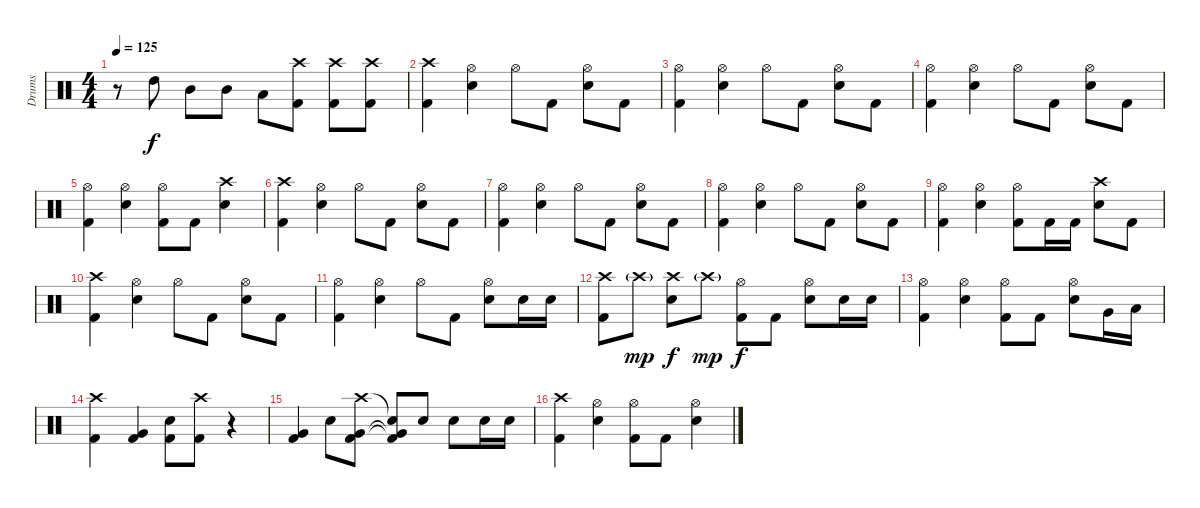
\track ("Drums" "Drums") {instrument percussion}
\staff {score}
\articulation defaults
\ts (4 4)
\tempo 125
\clef neutral
\ks c
r.8{dy f} "High Tom (hit)".8 "Mid Tom (hit)".8 "Mid Tom (hit)".8 "Low Tom (hit)".8 ("Crash high (hit)" "Kick (hit) 2").8 ("Crash high (hit)" "Kick (hit) 2").8 ("Crash high (hit)" "Kick (hit) 2").8 |
("Crash high (hit)" "Kick (hit) 2").4 ("Hi-Hat (open)" "Electric Snare (hit)").4 "Hi-Hat (open)".8 "Kick (hit) 2".8 ("Hi-Hat (open)" "Electric Snare (hit)").8 "Kick (hit) 2".8 |
("Hi-Hat (open)" "Kick (hit) 2").4 ("Hi-Hat (open)" "Electric Snare (hit)").4 "Hi-Hat (open)".8 "Kick (hit) 2".8 ("Hi-Hat (open)" "Electric Snare (hit)").8 "Kick (hit) 2".8 |
("Hi-Hat (open)" "Kick (hit) 2").4 ("Hi-Hat (open)" "Electric Snare (hit)").4 "Hi-Hat (open)".8 "Kick (hit) 2".8 ("Hi-Hat (open)" "Electric Snare (hit)").8 "Kick (hit) 2".8 |
("Hi-Hat (open)" "Kick (hit) 2").4 ("Hi-Hat (open)" "Electric Snare (hit)").4 ("Hi-Hat (open)" "Kick (hit) 2").8 "Kick (hit) 2".8 ("Crash high (hit)" "Electric Snare (hit)").4 |
("Crash high (hit)" "Kick (hit) 2").4 ("Hi-Hat (open)" "Electric Snare (hit)").4 "Hi-Hat (open)".8 "Kick (hit) 2".8 ("Hi-Hat (open)" "Electric Snare (hit)").8 "Kick (hit) 2".8 |
("Hi-Hat (open)" "Kick (hit) 2").4 ("Hi-Hat (open)" "Electric Snare (hit)").4 "Hi-Hat (open)".8 "Kick (hit) 2".8 ("Hi-Hat (open)" "Electric Snare (hit)").8 "Kick (hit) 2".8 |
("Hi-Hat (open)" "Kick (hit) 2").4 ("Hi-Hat (open)" "Electric Snare (hit)").4 "Hi-Hat (open)".8 "Kick (hit) 2".8 ("Hi-Hat (open)" "Electric Snare (hit)").8 "Kick (hit) 2".8 |
("Hi-Hat (open)" "Kick (hit) 2").4 ("Hi-Hat (open)" "Electric Snare (hit)").4 ("Hi-Hat (open)" "Kick (hit) 2").8 "Kick (hit) 2".16 "Kick (hit) 2".16 ("Crash high (hit)" "Electric Snare (hit)").8 "Kick (hit) 2".8 |
("Crash high (hit)" "Kick (hit) 2").4 ("Hi-Hat (open)" "Electric Snare (hit)").4 "Hi-Hat (open)".8 "Kick (hit) 2".8 ("Hi-Hat (open)" "Electric Snare (hit)").8 "Kick (hit) 2".8 |
("Hi-Hat (open)" "Kick (hit) 2").4 ("Hi-Hat (open)" "Electric Snare (hit)").4 "Hi-Hat (open)".8 "Kick (hit) 2".8 ("Hi-Hat (open)" "Electric Snare (hit)").8 "Electric Snare (hit)".16 "Electric Snare (hit)".16 |
("Crash high (hit)" "Kick (hit) 2").8 "Crash high (hit)"{g}.8{dy mp} ("Crash high (hit)" "Electric Snare (hit)").8{dy f} "Crash high (hit)"{g}.8{dy mp} ("Hi-Hat (open)" "Kick (hit) 2").8{dy f} "Kick (hit) 2".8 ("Hi-Hat (open)" "Electric Snare (hit)").8 "Electric Snare (hit)".16 "Electric Snare (hit)".16 |
("Hi-Hat (open)" "Kick (hit) 2").4 ("Hi-Hat (open)" "Electric Snare (hit)").4 ("Hi-Hat (open)" "Kick (hit) 2").8 "Kick (hit) 2".8 ("Hi-Hat (open)" "Electric Snare (hit)").8 "Very Low Tom (hit)".16 "Low Floor Tom (hit)".16 |
("Crash high (hit)" "Kick (hit) 2").4 ("Very Low Tom (hit)" "Kick (hit) 2").4 ("Electric Snare (hit)" "Kick (hit) 2").8 ("Crash high (hit)" "Kick (hit) 2").8 r.4 |
("Very Low Tom (hit)" "Kick (hit) 2").4 "Electric Snare (hit)".8 ("Crash high (hit)" "Very Low Tom (hit)" "Kick (hit) 2").8 ("Snare (hit)"{t} "Very Low Tom (hit)"{t} "Kick (hit) 2"{t}).8 "Electric Snare (hit)".8 "Electric Snare (hit)".8 "Electric Snare (hit)".16 "Electric Snare (hit)".16 |
("Crash high (hit)" "Kick (hit) 2").4 ("Hi-Hat (open)" "Electric Snare (hit)").4 ("Hi-Hat (open)" "Kick (hit) 2").8 "Kick (hit) 2".8 ("Hi-Hat (open)" "Electric Snare (hit)").4
